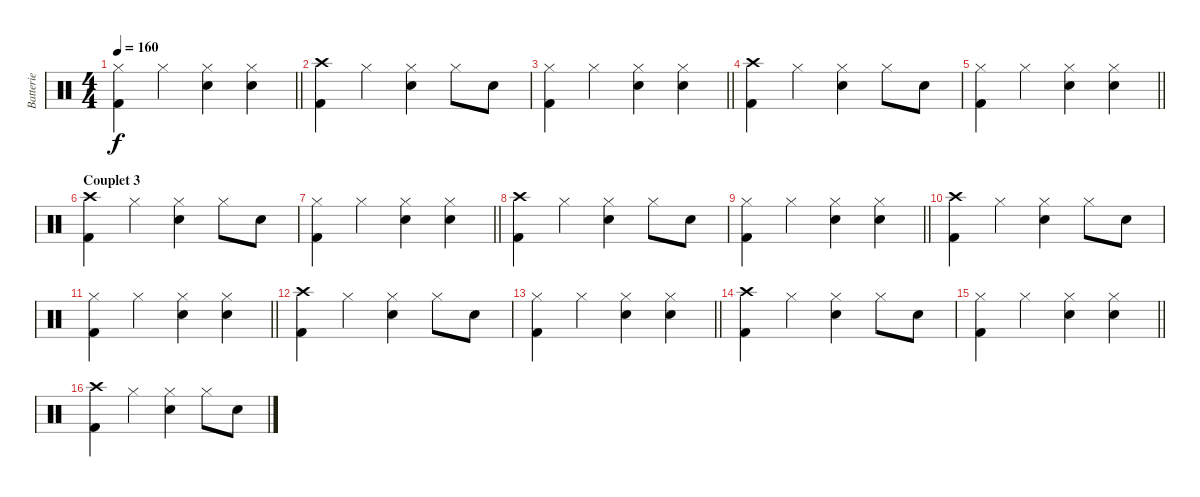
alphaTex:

\track ("Batterie" "Batterie") {instrument percussion}
\staff {score}
\articulation defaults
\ts (4 4)
\tempo 160
\clef neutral
\barLineRight lightlight
\ks c
("Hi-Hat (closed)" "Kick (hit) 2").4{dy f} "Hi-Hat (closed)".4 ("Hi-Hat (closed)" "Electric Snare (hit)").4 ("Hi-Hat (closed)" "Electric Snare (hit)").4 |
("Crash high (hit)" "Kick (hit) 2").4 "Hi-Hat (closed)".4 ("Hi-Hat (closed)" "Electric Snare (hit)").4 "Hi-Hat (closed)".8 "Electric Snare (hit)".8 |
\barLineRight lightlight
("Hi-Hat (closed)" "Kick (hit) 2").4 "Hi-Hat (closed)".4 ("Hi-Hat (closed)" "Electric Snare (hit)").4 ("Hi-Hat (closed)" "Electric Snare (hit)").4 |
("Crash high (hit)" "Kick (hit) 2").4 "Hi-Hat (closed)".4 ("Hi-Hat (closed)" "Electric Snare (hit)").4 "Hi-Hat (closed)".8 "Electric Snare (hit)".8 |
\barLineRight lightlight
("Hi-Hat (closed)" "Kick (hit) 2").4 "Hi-Hat (closed)".4 ("Hi-Hat (closed)" "Electric Snare (hit)").4 ("Hi-Hat (closed)" "Electric Snare (hit)").4 |
\section ("" "Couplet 3")
("Crash high (hit)" "Kick (hit) 2").4 "Hi-Hat (closed)".4 ("Hi-Hat (closed)" "Electric Snare (hit)").4 "Hi-Hat (closed)".8 "Electric Snare (hit)".8 |
\barLineRight lightlight
("Hi-Hat (closed)" "Kick (hit) 2").4 "Hi-Hat (closed)".4 ("Hi-Hat (closed)" "Electric Snare (hit)").4 ("Hi-Hat (closed)" "Electric Snare (hit)").4 |
("Crash high (hit)" "Kick (hit) 2").4 "Hi-Hat (closed)".4 ("Hi-Hat (closed)" "Electric Snare (hit)").4 "Hi-Hat (closed)".8 "Electric Snare (hit)".8 |
\barLineRight lightlight
("Hi-Hat (closed)" "Kick (hit) 2").4 "Hi-Hat (closed)".4 ("Hi-Hat (closed)" "Electric Snare (hit)").4 ("Hi-Hat (closed)" "Electric Snare (hit)").4 |
("Crash high (hit)" "Kick (hit) 2").4 "Hi-Hat (closed)".4 ("Hi-Hat (closed)" "Electric Snare (hit)").4 "Hi-Hat (closed)".8 "Electric Snare (hit)".8 |
\barLineRight lightlight
("Hi-Hat (closed)" "Kick (hit) 2").4 "Hi-Hat (closed)".4 ("Hi-Hat (closed)" "Electric Snare (hit)").4 ("Hi-Hat (closed)" "Electric Snare (hit)").4 |
("Crash high (hit)" "Kick (hit) 2").4 "Hi-Hat (closed)".4 ("Hi-Hat (closed)" "Electric Snare (hit)").4 "Hi-Hat (closed)".8 "Electric Snare (hit)".8 |
\barLineRight lightlight
("Hi-Hat (closed)" "Kick (hit) 2").4 "Hi-Hat (closed)".4 ("Hi-Hat (closed)" "Electric Snare (hit)").4 ("Hi-Hat (closed)" "Electric Snare (hit)").4 |
("Crash high (hit)" "Kick (hit) 2").4 "Hi-Hat (closed)".4 ("Hi-Hat (closed)" "Electric Snare (hit)").4 "Hi-Hat (closed)".8 "Electric Snare (hit)".8 |
\barLineRight lightlight
("Hi-Hat (closed)" "Kick (hit) 2").4 "Hi-Hat (closed)".4 ("Hi-Hat (closed)" "Electric Snare (hit)").4 ("Hi-Hat (closed)" "Electric Snare (hit)").4 |
("Crash high (hit)" "Kick (hit) 2").4 "Hi-Hat (closed)".4 ("Hi-Hat (closed)" "Electric Snare (hit)").4 "Hi-Hat (closed)".8 "Electric Snare (hit)".8
